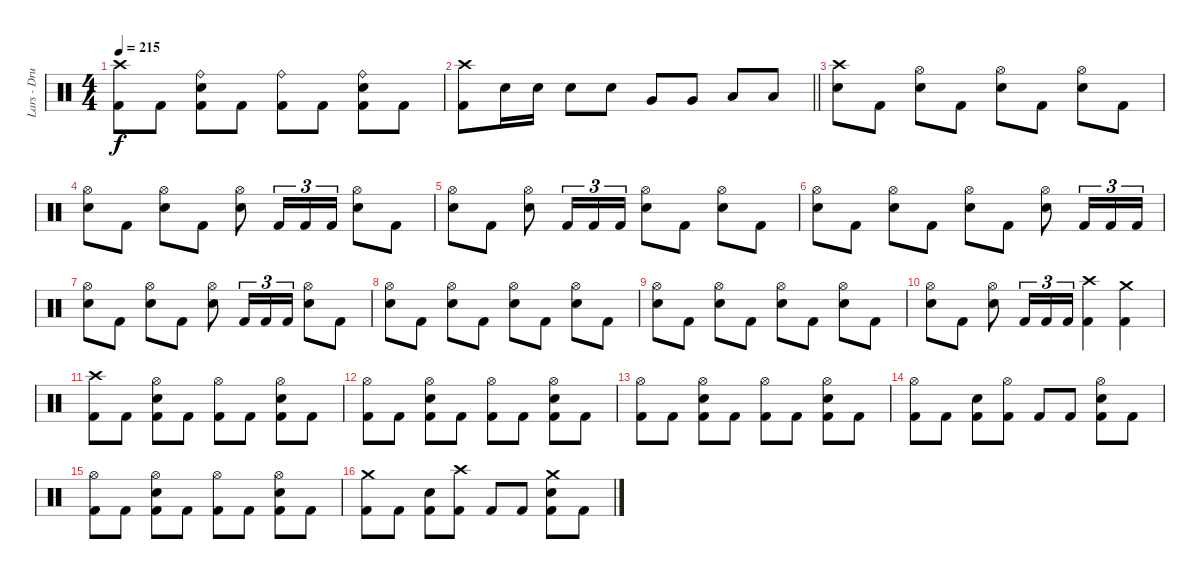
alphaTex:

\track ("Lars - Drums" "Lars - Dru") {instrument percussion}
\staff {score}
\articulation defaults
\ts (4 4)
\tempo 215
\clef neutral
\ks c
("Kick (hit) 2" "Crash high (hit)").8{dy f} "Kick (hit) 2".8 ("Kick (hit) 2" "Electric Snare (hit)" "Ride (bell)").8 "Kick (hit) 2".8 ("Kick (hit) 2" "Ride (bell)").8 "Kick (hit) 2".8 ("Kick (hit) 2" "Electric Snare (hit)" "Ride (bell)").8 "Kick (hit) 2".8 |
\barLineRight lightlight
("Kick (hit) 2" "Crash high (hit)").8 "Electric Snare (hit)".16 "Electric Snare (hit)".16 "Electric Snare (hit)".8 "Electric Snare (hit)".8 "Very Low Tom (hit)".8 "Very Low Tom (hit)".8 "Low Floor Tom (hit)".8 "Low Floor Tom (hit)".8 |
\section ("" "")
("Electric Snare (hit)" "Crash high (hit)").8 "Kick (hit) 2".8 ("Electric Snare (hit)" "Hi-Hat (open)").8 "Kick (hit) 2".8 ("Electric Snare (hit)" "Hi-Hat (open)").8 "Kick (hit) 2".8 ("Electric Snare (hit)" "Hi-Hat (open)").8 "Kick (hit) 2".8 |
("Electric Snare (hit)" "Hi-Hat (open)").8 "Kick (hit) 2".8 ("Electric Snare (hit)" "Hi-Hat (open)").8 "Kick (hit) 2".8 ("Electric Snare (hit)" "Hi-Hat (open)").8 "Kick (hit) 2".16{tu (3 2)} "Kick (hit) 2".16{tu (3 2)} "Kick (hit) 2".16{tu (3 2)} ("Electric Snare (hit)" "Hi-Hat (open)").8 "Kick (hit) 2".8 |
("Electric Snare (hit)" "Hi-Hat (open)").8 "Kick (hit) 2".8 ("Electric Snare (hit)" "Hi-Hat (open)").8 "Kick (hit) 2".16{tu (3 2)} "Kick (hit) 2".16{tu (3 2)} "Kick (hit) 2".16{tu (3 2)} ("Electric Snare (hit)" "Hi-Hat (open)").8 "Kick (hit) 2".8 ("Electric Snare (hit)" "Hi-Hat (open)").8 "Kick (hit) 2".8 |
("Electric Snare (hit)" "Hi-Hat (open)").8 "Kick (hit) 2".8 ("Electric Snare (hit)" "Hi-Hat (open)").8 "Kick (hit) 2".8 ("Electric Snare (hit)" "Hi-Hat (open)").8 "Kick (hit) 2".8 ("Electric Snare (hit)" "Hi-Hat (open)").8 "Kick (hit) 2".16{tu (3 2)} "Kick (hit) 2".16{tu (3 2)} "Kick (hit) 2".16{tu (3 2)} |
("Electric Snare (hit)" "Hi-Hat (open)").8 "Kick (hit) 2".8 ("Electric Snare (hit)" "Hi-Hat (open)").8 "Kick (hit) 2".8 ("Electric Snare (hit)" "Hi-Hat (open)").8 "Kick (hit) 2".16{tu (3 2)} "Kick (hit) 2".16{tu (3 2)} "Kick (hit) 2".16{tu (3 2)} ("Electric Snare (hit)" "Hi-Hat (open)").8 "Kick (hit) 2".8 |
("Electric Snare (hit)" "Hi-Hat (open)").8 "Kick (hit) 2".8 ("Electric Snare (hit)" "Hi-Hat (open)").8 "Kick (hit) 2".8 ("Electric Snare (hit)" "Hi-Hat (open)").8 "Kick (hit) 2".8 ("Electric Snare (hit)" "Hi-Hat (open)").8 "Kick (hit) 2".8 |
("Electric Snare (hit)" "Hi-Hat (open)").8 "Kick (hit) 2".8 ("Electric Snare (hit)" "Hi-Hat (open)").8 "Kick (hit) 2".8 ("Electric Snare (hit)" "Hi-Hat (open)").8 "Kick (hit) 2".8 ("Electric Snare (hit)" "Hi-Hat (open)").8 "Kick (hit) 2".8 |
("Electric Snare (hit)" "Hi-Hat (open)").8 "Kick (hit) 2".8 ("Electric Snare (hit)" "Hi-Hat (open)").8 "Kick (hit) 2".16{tu (3 2)} "Kick (hit) 2".16{tu (3 2)} "Kick (hit) 2".16{tu (3 2)} ("Kick (hit) 2" "Crash high (hit)").4 ("Kick (hit) 2" "Crash medium (hit)").4 |
("Kick (hit) 2" "Crash high (hit)").8 "Kick (hit) 2".8 ("Kick (hit) 2" "Electric Snare (hit)" "Hi-Hat (open)").8 "Kick (hit) 2".8 ("Kick (hit) 2" "Hi-Hat (open)").8 "Kick (hit) 2".8 ("Kick (hit) 2" "Electric Snare (hit)" "Hi-Hat (open)").8 "Kick (hit) 2".8 |
("Kick (hit) 2" "Hi-Hat (open)").8 "Kick (hit) 2".8 ("Kick (hit) 2" "Electric Snare (hit)" "Hi-Hat (open)").8 "Kick (hit) 2".8 ("Kick (hit) 2" "Hi-Hat (open)").8 "Kick (hit) 2".8 ("Kick (hit) 2" "Electric Snare (hit)" "Hi-Hat (open)").8 "Kick (hit) 2".8 |
("Kick (hit) 2" "Hi-Hat (open)").8 "Kick (hit) 2".8 ("Kick (hit) 2" "Electric Snare (hit)" "Hi-Hat (open)").8 "Kick (hit) 2".8 ("Kick (hit) 2" "Hi-Hat (open)").8 "Kick (hit) 2".8 ("Kick (hit) 2" "Electric Snare (hit)" "Hi-Hat (open)").8 "Kick (hit) 2".8 |
("Kick (hit) 2" "Hi-Hat (open)").8 "Kick (hit) 2".8 ("Kick (hit) 2" "Electric Snare (hit)").8 ("Kick (hit) 2" "Hi-Hat (open)").8 "Kick (hit) 2".8 "Kick (hit) 2".8 ("Kick (hit) 2" "Electric Snare (hit)" "Hi-Hat (open)").8 "Kick (hit) 2".8 |
("Kick (hit) 2" "Hi-Hat (open)").8 "Kick (hit) 2".8 ("Kick (hit) 2" "Electric Snare (hit)" "Hi-Hat (open)").8 "Kick (hit) 2".8 ("Kick (hit) 2" "Hi-Hat (open)").8 "Kick (hit) 2".8 ("Kick (hit) 2" "Electric Snare (hit)" "Hi-Hat (open)").8 "Kick (hit) 2".8 |
("Kick (hit) 2" "Crash medium (hit)").8 "Kick (hit) 2".8 ("Kick (hit) 2" "Electric Snare (hit)").8 ("Kick (hit) 2" "Crash high (hit)").8 "Kick (hit) 2".8 "Kick (hit) 2".8 ("Kick (hit) 2" "Electric Snare (hit)" "Crash medium (hit)").8 "Kick (hit) 2".8
